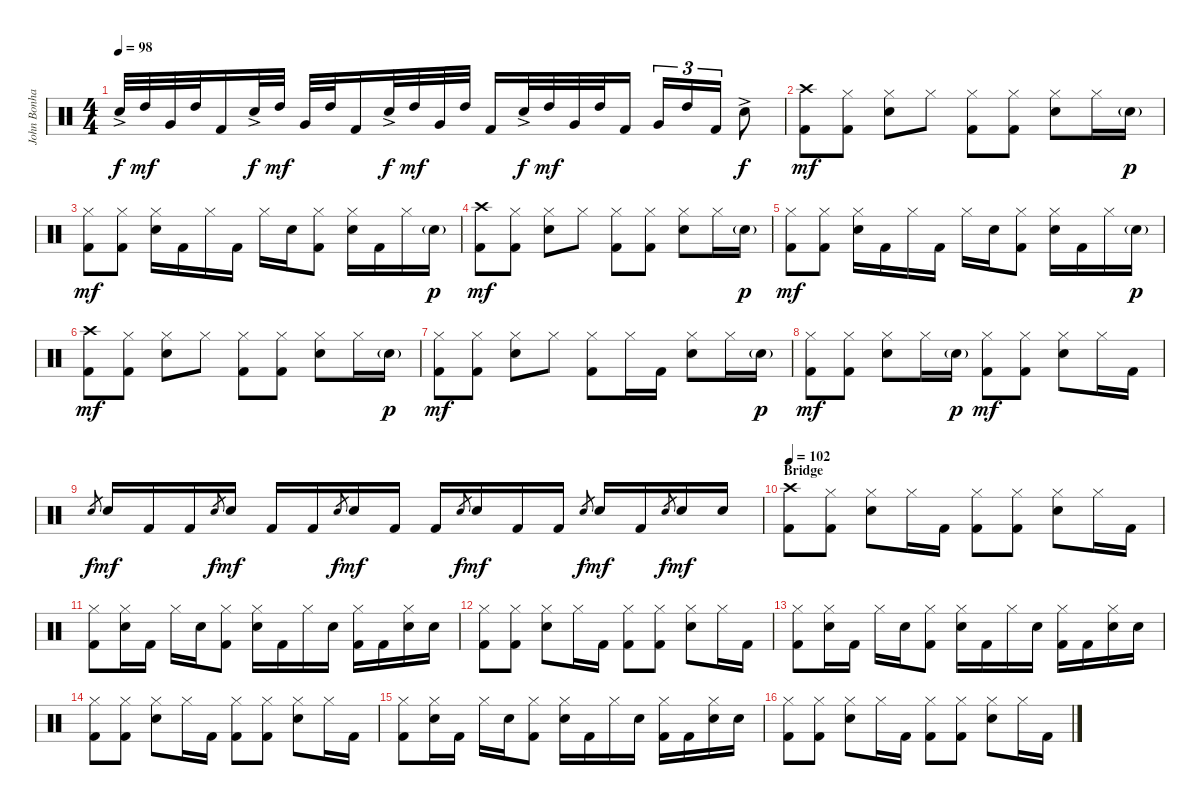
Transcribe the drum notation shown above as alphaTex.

\track ("John Bonham - Drums" "John Bonha") {instrument percussion}
\staff {score}
\articulation defaults
\ts (4 4)
\tempo 98
\clef neutral
\ks c "Snare (hit) 2"{ac}.32{dy f} "High Tom (hit)".32{dy mf} "Very Low Tom (hit)".32 "High Tom (hit)".32 "Kick (hit) 2".16 "Snare (hit) 2"{ac}.32{dy f} "High Tom (hit)".32{dy mf} "Very Low Tom (hit)".32 "High Tom (hit)".32 "Kick (hit) 2".16 "Snare (hit) 2"{ac}.32{dy f} "High Tom (hit)".32{dy mf} "Very Low Tom (hit)".32 "High Tom (hit)".32 "Kick (hit) 2".16 "Snare (hit) 2"{ac}.32{dy f} "High Tom (hit)".32{dy mf} "Very Low Tom (hit)".32 "High Tom (hit)".32 "Kick (hit) 2".16 "Very Low Tom (hit)".16{tu (3 2)} "High Tom (hit)".16{tu (3 2)} "Kick (hit) 2".16{tu (3 2)} "Snare (hit) 2"{ac}.8{dy f}
|
("Crash high (hit)" "Kick (hit) 2").8{dy mf} ("Hi-Hat (closed)" "Kick (hit) 2").8 ("Hi-Hat (closed)" "Snare (hit) 2").8 "Hi-Hat (closed)".8 ("Hi-Hat (closed)" "Kick (hit) 2").8 ("Hi-Hat (closed)" "Kick (hit) 2").8 ("Hi-Hat (closed)" "Snare (hit) 2").8 "Hi-Hat (closed)".16 "Snare (hit) 2"{g}.16{dy p} |
("Hi-Hat (closed)" "Kick (hit) 2").8{dy mf} ("Hi-Hat (closed)" "Kick (hit) 2").8 ("Hi-Hat (closed)" "Snare (hit) 2").16 "Kick (hit) 2".16 "Hi-Hat (closed)".16 "Kick (hit) 2".16 "Hi-Hat (closed)".16 "Snare (hit) 2".16 ("Hi-Hat (closed)" "Kick (hit) 2").8 ("Hi-Hat (closed)" "Snare (hit) 2").16 "Kick (hit) 2".16 "Hi-Hat (closed)".16 "Snare (hit) 2"{g}.16{dy p} |
("Crash high (hit)" "Kick (hit) 2").8{dy mf} ("Hi-Hat (closed)" "Kick (hit) 2").8 ("Hi-Hat (closed)" "Snare (hit) 2").8 "Hi-Hat (closed)".8 ("Hi-Hat (closed)" "Kick (hit) 2").8 ("Hi-Hat (closed)" "Kick (hit) 2").8 ("Hi-Hat (closed)" "Snare (hit) 2").8 "Hi-Hat (closed)".16 "Snare (hit) 2"{g}.16{dy p} |
("Hi-Hat (closed)" "Kick (hit) 2").8{dy mf} ("Hi-Hat (closed)" "Kick (hit) 2").8 ("Hi-Hat (closed)" "Snare (hit) 2").16 "Kick (hit) 2".16 "Hi-Hat (closed)".16 "Kick (hit) 2".16 "Hi-Hat (closed)".16 "Snare (hit) 2".16 ("Hi-Hat (closed)" "Kick (hit) 2").8 ("Hi-Hat (closed)" "Snare (hit) 2").16 "Kick (hit) 2".16 "Hi-Hat (closed)".16 "Snare (hit) 2"{g}.16{dy p} |
("Crash high (hit)" "Kick (hit) 2").8{dy mf} ("Hi-Hat (closed)" "Kick (hit) 2").8 ("Hi-Hat (closed)" "Snare (hit) 2").8 "Hi-Hat (closed)".8 ("Hi-Hat (closed)" "Kick (hit) 2").8 ("Hi-Hat (closed)" "Kick (hit) 2").8 ("Hi-Hat (closed)" "Snare (hit) 2").8 "Hi-Hat (closed)".16 "Snare (hit) 2"{g}.16{dy p} |
("Hi-Hat (closed)" "Kick (hit) 2").8{dy mf} ("Hi-Hat (closed)" "Kick (hit) 2").8 ("Hi-Hat (closed)" "Snare (hit) 2").8 "Hi-Hat (closed)".8 ("Hi-Hat (closed)" "Kick (hit) 2").8 "Hi-Hat (closed)".16 "Kick (hit) 2".16 ("Hi-Hat (closed)" "Snare (hit) 2").8 "Hi-Hat (closed)".16 "Snare (hit) 2"{g}.16{dy p} |
("Hi-Hat (closed)" "Kick (hit) 2").8{dy mf} ("Hi-Hat (closed)" "Kick (hit) 2").8 ("Hi-Hat (closed)" "Snare (hit) 2").8 "Hi-Hat (closed)".16 "Snare (hit) 2"{g}.16{dy p} ("Hi-Hat (closed)" "Kick (hit) 2").8{dy mf} ("Hi-Hat (closed)" "Kick (hit) 2").8 ("Hi-Hat (closed)" "Snare (hit) 2").8 "Hi-Hat (closed)".16 "Kick (hit) 2".16 |
"Snare (hit) 2".8{gr dy f} "Snare (hit) 2".16{dy mf} "Kick (hit) 2".16 "Kick (hit) 2".16 "Snare (hit) 2".8{gr dy f} "Snare (hit) 2".16{dy mf} "Kick (hit) 2".16 "Kick (hit) 2".16 "Snare (hit) 2".8{gr dy f} "Snare (hit) 2".16{dy mf} "Kick (hit) 2".16 "Kick (hit) 2".16 "Snare (hit) 2".8{gr dy f} "Snare (hit) 2".16{dy mf} "Kick (hit) 2".16 "Kick (hit) 2".16 "Snare (hit) 2".8{gr dy f} "Snare (hit) 2".16{dy mf} "Kick (hit) 2".16 "Snare (hit) 2".8{gr dy f} "Snare (hit) 2".16{dy mf} "Snare (hit) 2".16 |
\section ("" "Bridge")
\tempo 102
("Crash high (hit)" "Kick (hit) 2").8 ("Hi-Hat (closed)" "Kick (hit) 2").8 ("Hi-Hat (closed)" "Snare (hit) 2").8 "Hi-Hat (closed)".16 "Kick (hit) 2".16 ("Hi-Hat (closed)" "Kick (hit) 2").8 ("Hi-Hat (closed)" "Kick (hit) 2").8 ("Hi-Hat (closed)" "Snare (hit) 2").8 "Hi-Hat (closed)".16 "Kick (hit) 2".16 |
("Hi-Hat (closed)" "Kick (hit) 2").8 ("Hi-Hat (closed)" "Snare (hit) 2").16 "Kick (hit) 2".16 "Hi-Hat (closed)".16 "Snare (hit) 2".16 ("Hi-Hat (closed)" "Kick (hit) 2").8 ("Hi-Hat (closed)" "Snare (hit) 2").16 "Kick (hit) 2".16 "Hi-Hat (closed)".16 "Snare (hit) 2".16 ("Hi-Hat (closed)" "Kick (hit) 2").16 "Kick (hit) 2".16 ("Hi-Hat (closed)" "Snare (hit) 2").16 "Snare (hit) 2".16 |
("Hi-Hat (closed)" "Kick (hit) 2").8 ("Hi-Hat (closed)" "Kick (hit) 2").8 ("Hi-Hat (closed)" "Snare (hit) 2").8 "Hi-Hat (closed)".16 "Kick (hit) 2".16 ("Hi-Hat (closed)" "Kick (hit) 2").8 ("Hi-Hat (closed)" "Kick (hit) 2").8 ("Hi-Hat (closed)" "Snare (hit) 2").8 "Hi-Hat (closed)".16 "Kick (hit) 2".16 |
("Hi-Hat (closed)" "Kick (hit) 2").8 ("Hi-Hat (closed)" "Snare (hit) 2").16 "Kick (hit) 2".16 "Hi-Hat (closed)".16 "Snare (hit) 2".16 ("Hi-Hat (closed)" "Kick (hit) 2").8 ("Hi-Hat (closed)" "Snare (hit) 2").16 "Kick (hit) 2".16 "Hi-Hat (closed)".16 "Snare (hit) 2".16 ("Hi-Hat (closed)" "Kick (hit) 2").16 "Kick (hit) 2".16 ("Hi-Hat (closed)" "Snare (hit) 2").16 "Snare (hit) 2".16 |
("Hi-Hat (closed)" "Kick (hit) 2").8 ("Hi-Hat (closed)" "Kick (hit) 2").8 ("Hi-Hat (closed)" "Snare (hit) 2").8 "Hi-Hat (closed)".16 "Kick (hit) 2".16 ("Hi-Hat (closed)" "Kick (hit) 2").8 ("Hi-Hat (closed)" "Kick (hit) 2").8 ("Hi-Hat (closed)" "Snare (hit) 2").8 "Hi-Hat (closed)".16 "Kick (hit) 2".16 |
("Hi-Hat (closed)" "Kick (hit) 2").8 ("Hi-Hat (closed)" "Snare (hit) 2").16 "Kick (hit) 2".16 "Hi-Hat (closed)".16 "Snare (hit) 2".16 ("Hi-Hat (closed)" "Kick (hit) 2").8 ("Hi-Hat (closed)" "Snare (hit) 2").16 "Kick (hit) 2".16 "Hi-Hat (closed)".16 "Snare (hit) 2".16 ("Hi-Hat (closed)" "Kick (hit) 2").16 "Kick (hit) 2".16 ("Hi-Hat (closed)" "Snare (hit) 2").16 "Snare (hit) 2".16 |
("Hi-Hat (closed)" "Kick (hit) 2").8 ("Hi-Hat (closed)" "Kick (hit) 2").8 ("Hi-Hat (closed)" "Snare (hit) 2").8 "Hi-Hat (closed)".16 "Kick (hit) 2".16 ("Hi-Hat (closed)" "Kick (hit) 2").8 ("Hi-Hat (closed)" "Kick (hit) 2").8 ("Hi-Hat (closed)" "Snare (hit) 2").8 "Hi-Hat (closed)".16 "Kick (hit) 2".16
